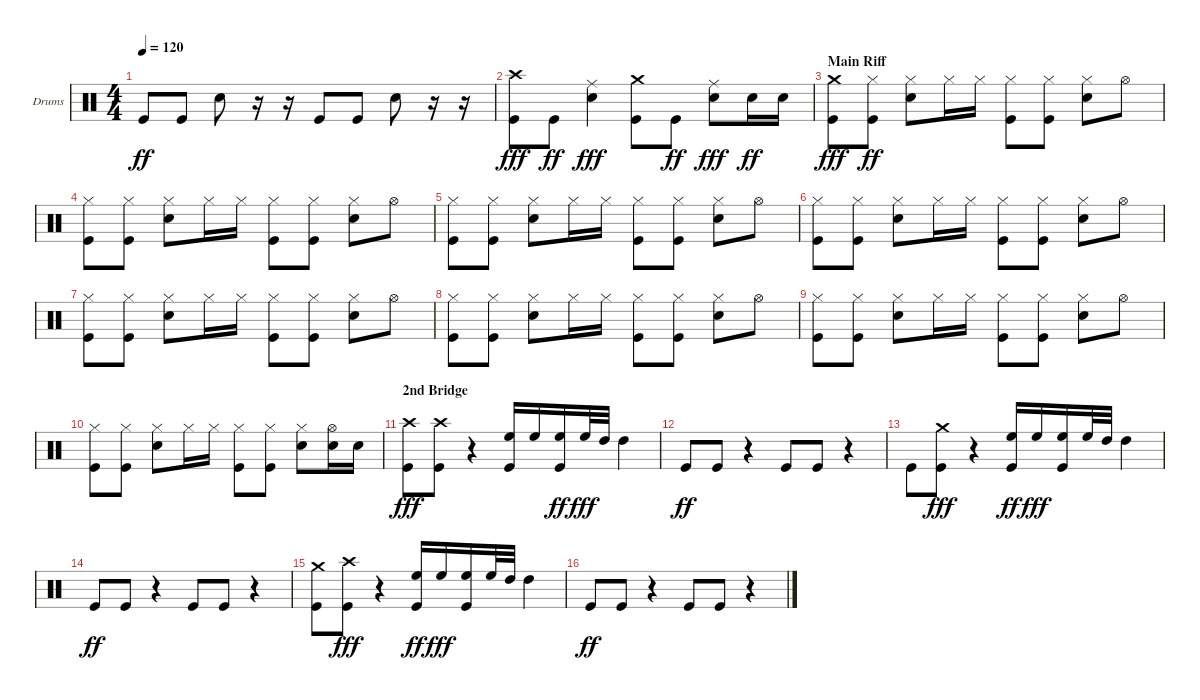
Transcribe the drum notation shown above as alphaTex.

\defaultSystemsLayout 4
\bracketExtendMode groupsimilarinstruments
\firstSystemTrackNameOrientation horizontal
\otherSystemsTrackNameOrientation horizontal
\track ("Drumkit" "Drums") {instrument percussion}
\staff {score}
\articulation defaults
\ts (4 4)
\tempo 120
\clef neutral
\ks c "Kick (hit)".8{dy ff} "Kick (hit)".8 "Snare (hit) 2".8
r.16 r.16 "Kick (hit)".8 "Kick (hit)".8 "Snare (hit) 2".8 r.16 r.16 |
("Crash high (hit)" "Kick (hit)").8{dy fff} "Kick (hit)".8{dy ff} ("Ride (middle)" "Snare (hit) 2").4{dy fff} ("Crash medium (hit)" "Kick (hit)").8 "Kick (hit)".8{dy ff} ("Ride (middle)" "Snare (hit) 2").8{dy fff} "Snare (hit) 2".16{dy ff} "Snare (hit) 2".16 |
\section ("" "Main Riff")
("Crash medium (hit)" "Kick (hit)").8{dy fff} ("Kick (hit)" "Hi-Hat (closed)").8{dy ff} ("Hi-Hat (closed)" "Snare (hit) 2").8 "Hi-Hat (closed)".16 "Hi-Hat (closed)".16 ("Kick (hit)" "Hi-Hat (closed)").8 ("Kick (hit)" "Hi-Hat (closed)").8 ("Hi-Hat (closed)" "Snare (hit) 2").8 "Hi-Hat (open)".8 |
("Kick (hit)" "Hi-Hat (closed)").8 ("Kick (hit)" "Hi-Hat (closed)").8 ("Hi-Hat (closed)" "Snare (hit) 2").8 "Hi-Hat (closed)".16 "Hi-Hat (closed)".16 ("Hi-Hat (closed)" "Kick (hit)").8 ("Kick (hit)" "Hi-Hat (closed)").8 ("Snare (hit) 2" "Hi-Hat (closed)").8 "Hi-Hat (open)".8 |
("Hi-Hat (closed)" "Kick (hit)").8 ("Hi-Hat (closed)" "Kick (hit)").8 ("Hi-Hat (closed)" "Snare (hit) 2").8 "Hi-Hat (closed)".16 "Hi-Hat (closed)".16 ("Hi-Hat (closed)" "Kick (hit)").8 ("Hi-Hat (closed)" "Kick (hit)").8 ("Hi-Hat (closed)" "Snare (hit) 2").8 "Hi-Hat (open)".8 |
("Hi-Hat (closed)" "Kick (hit)").8 ("Hi-Hat (closed)" "Kick (hit)").8 ("Hi-Hat (closed)" "Snare (hit) 2").8 "Hi-Hat (closed)".16 "Hi-Hat (closed)".16 ("Hi-Hat (closed)" "Kick (hit)").8 ("Kick (hit)" "Hi-Hat (closed)").8 ("Snare (hit) 2" "Hi-Hat (closed)").8 "Hi-Hat (open)".8 |
("Hi-Hat (closed)" "Kick (hit)").8 ("Hi-Hat (closed)" "Kick (hit)").8 ("Hi-Hat (closed)" "Snare (hit) 2").8 "Hi-Hat (closed)".16 "Hi-Hat (closed)".16 ("Kick (hit)" "Hi-Hat (closed)").8 ("Hi-Hat (closed)" "Kick (hit)").8 ("Hi-Hat (closed)" "Snare (hit) 2").8 "Hi-Hat (open)".8 |
("Hi-Hat (closed)" "Kick (hit)").8 ("Hi-Hat (closed)" "Kick (hit)").8 ("Hi-Hat (closed)" "Snare (hit) 2").8 "Hi-Hat (closed)".16 "Hi-Hat (closed)".16 ("Hi-Hat (closed)" "Kick (hit)").8 ("Hi-Hat (closed)" "Kick (hit)").8 ("Hi-Hat (closed)" "Snare (hit) 2").8 "Hi-Hat (open)".8 |
("Hi-Hat (closed)" "Kick (hit)").8 ("Hi-Hat (closed)" "Kick (hit)").8 ("Snare (hit) 2" "Hi-Hat (closed)").8 "Hi-Hat (closed)".16 "Hi-Hat (closed)".16 ("Kick (hit)" "Hi-Hat (closed)").8 ("Hi-Hat (closed)" "Kick (hit)").8 ("Hi-Hat (closed)" "Snare (hit) 2").8 "Hi-Hat (open)".8 |
("Kick (hit)" "Hi-Hat (closed)").8 ("Hi-Hat (closed)" "Kick (hit)").8 ("Snare (hit) 2" "Hi-Hat (closed)").8 "Hi-Hat (closed)".16 "Hi-Hat (closed)".16 ("Hi-Hat (closed)" "Kick (hit)").8 ("Hi-Hat (closed)" "Kick (hit)").8 ("Hi-Hat (closed)" "Snare (hit) 2").8 ("Hi-Hat (open)" "Snare (hit) 2").16 "Snare (hit) 2".16 |
\section ("" "2nd Bridge")
("Crash high (hit)" "Kick (hit)").8{dy fff} ("Crash high (hit)" "Kick (hit)").8 r.4 ("High Floor Tom (hit)" "Kick (hit)").16 "High Floor Tom (hit)".16 ("Kick (hit)" "High Floor Tom (hit)").16{dy ff} "High Floor Tom (hit)".32{dy fff} "High Tom (hit)".32 "High Tom (hit)".4 |
"Kick (hit)".8{dy ff} "Kick (hit)".8 r.4 "Kick (hit)".8 "Kick (hit)".8 r.4 |
"Kick (hit)".8 ("Crash medium (hit)" "Kick (hit)").8{dy fff} r.4 ("Kick (hit)" "High Floor Tom (hit)").16{dy ff} "High Floor Tom (hit)".16{dy fff} ("High Floor Tom (hit)" "Kick (hit)").16 "High Floor Tom (hit)".32 "High Tom (hit)".32 "High Tom (hit)".4 |
"Kick (hit)".8{dy ff} "Kick (hit)".8 r.4 "Kick (hit)".8 "Kick (hit)".8 r.4 |
("Kick (hit)" "Crash medium (hit)").8 ("Crash high (hit)" "Kick (hit)").8{dy fff} r.4 ("Kick (hit)" "High Floor Tom (hit)").16{dy ff} "High Floor Tom (hit)".16{dy fff} ("High Floor Tom (hit)" "Kick (hit)").16 "High Floor Tom (hit)".32 "High Tom (hit)".32 "High Tom (hit)".4 |
"Kick (hit)".8{dy ff} "Kick (hit)".8 r.4 "Kick (hit)".8 "Kick (hit)".8 r.4
